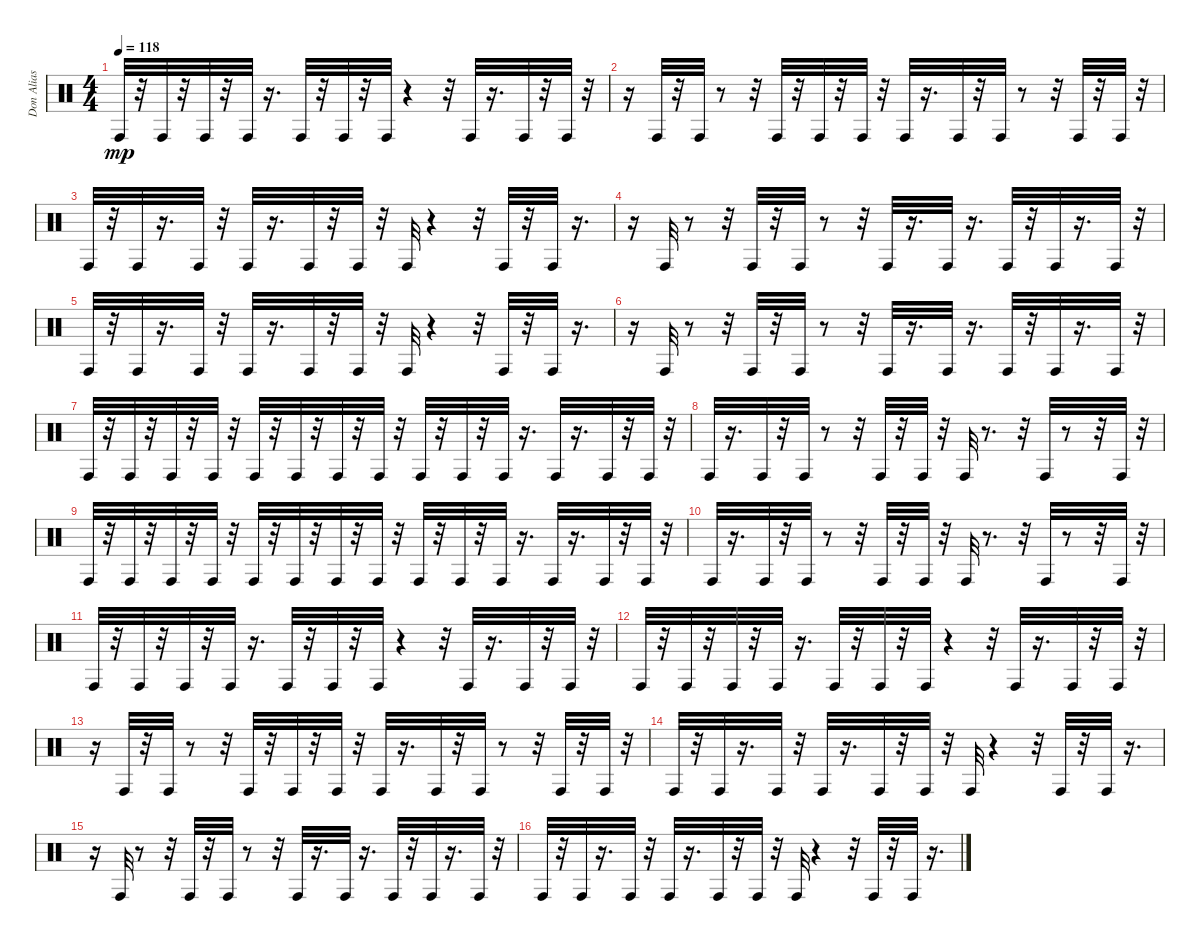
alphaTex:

\track ("Don Alias" "Don Alias") {instrument percussion}
\staff {score}
\articulation defaults
\ts (4 4)
\tempo 118
\clef neutral
\ks c "Conga high (hit)".32{dy mp}
r.32 "Conga high (hit)".32 r.32 "Conga high (hit)".32 r.32 "Conga high (hit)".32 r.16{d} "Conga high (hit)".32 r.32 "Conga high (hit)".32 r.32 "Conga high (hit)".32 r.4 r.32 "Conga high (hit)".32 r.16{d} "Conga high (hit)".32 r.32 "Conga high (hit)".32 r.32 |
r.16 "Conga high (hit)".32 r.32 "Conga high (hit)".32 r.8 r.32 "Conga high (hit)".32 r.32 "Conga high (hit)".32 r.32 "Conga high (hit)".32 r.32 "Conga high (hit)".32 r.16{d} "Conga high (hit)".32 r.32 "Conga high (hit)".32 r.8 r.32 "Conga high (hit)".32 r.32 "Conga high (hit)".32 r.32 |
"Conga high (hit)".32 r.32 "Conga high (hit)".32 r.16{d} "Conga high (hit)".32 r.32 "Conga high (hit)".32 r.16{d} "Conga high (hit)".32 r.32 "Conga high (hit)".32 r.32 "Conga high (hit)".32 r.4 r.32 "Conga high (hit)".32 r.32 "Conga high (hit)".32 r.16{d} |
r.16 "Conga high (hit)".32 r.8 r.32 "Conga high (hit)".32 r.32 "Conga high (hit)".32 r.8 r.32 "Conga high (hit)".32 r.16{d} "Conga high (hit)".32 r.16{d} "Conga high (hit)".32 r.32 "Conga high (hit)".32 r.16{d} "Conga high (hit)".32 r.32 |
"Conga high (hit)".32 r.32 "Conga high (hit)".32 r.16{d} "Conga high (hit)".32 r.32 "Conga high (hit)".32 r.16{d} "Conga high (hit)".32 r.32 "Conga high (hit)".32 r.32 "Conga high (hit)".32 r.4 r.32 "Conga high (hit)".32 r.32 "Conga high (hit)".32 r.16{d} |
r.16 "Conga high (hit)".32 r.8 r.32 "Conga high (hit)".32 r.32 "Conga high (hit)".32 r.8 r.32 "Conga high (hit)".32 r.16{d} "Conga high (hit)".32 r.16{d} "Conga high (hit)".32 r.32 "Conga high (hit)".32 r.16{d} "Conga high (hit)".32 r.32 |
"Conga high (hit)".32 r.32 "Conga high (hit)".32 r.32 "Conga high (hit)".32 r.32 "Conga high (hit)".32 r.32 "Conga high (hit)".32 r.32 "Conga high (hit)".32 r.32 "Conga high (hit)".32 r.32 "Conga high (hit)".32 r.32 "Conga high (hit)".32 r.32 "Conga high (hit)".32 r.32 "Conga high (hit)".32 r.16{d} "Conga high (hit)".32 r.16{d} "Conga high (hit)".32 r.32 "Conga high (hit)".32 r.32 |
"Conga high (hit)".32 r.16{d} "Conga high (hit)".32 r.32 "Conga high (hit)".32 r.8 r.32 "Conga high (hit)".32 r.32 "Conga high (hit)".32 r.32 "Conga high (hit)".32 r.8{d} r.32 "Conga high (hit)".32 r.8 r.32 "Conga high (hit)".32 r.32 |
"Conga high (hit)".32 r.32 "Conga high (hit)".32 r.32 "Conga high (hit)".32 r.32 "Conga high (hit)".32 r.32 "Conga high (hit)".32 r.32 "Conga high (hit)".32 r.32 "Conga high (hit)".32 r.32 "Conga high (hit)".32 r.32 "Conga high (hit)".32 r.32 "Conga high (hit)".32 r.32 "Conga high (hit)".32 r.16{d} "Conga high (hit)".32 r.16{d} "Conga high (hit)".32 r.32 "Conga high (hit)".32 r.32 |
"Conga high (hit)".32 r.16{d} "Conga high (hit)".32 r.32 "Conga high (hit)".32 r.8 r.32 "Conga high (hit)".32 r.32 "Conga high (hit)".32 r.32 "Conga high (hit)".32 r.8{d} r.32 "Conga high (hit)".32 r.8 r.32 "Conga high (hit)".32 r.32 |
"Conga high (hit)".32 r.32 "Conga high (hit)".32 r.32 "Conga high (hit)".32 r.32 "Conga high (hit)".32 r.16{d} "Conga high (hit)".32 r.32 "Conga high (hit)".32 r.32 "Conga high (hit)".32 r.4 r.32 "Conga high (hit)".32 r.16{d} "Conga high (hit)".32 r.32 "Conga high (hit)".32 r.32 |
"Conga high (hit)".32 r.32 "Conga high (hit)".32 r.32 "Conga high (hit)".32 r.32 "Conga high (hit)".32 r.16{d} "Conga high (hit)".32 r.32 "Conga high (hit)".32 r.32 "Conga high (hit)".32 r.4 r.32 "Conga high (hit)".32 r.16{d} "Conga high (hit)".32 r.32 "Conga high (hit)".32 r.32 |
r.16 "Conga high (hit)".32 r.32 "Conga high (hit)".32 r.8 r.32 "Conga high (hit)".32 r.32 "Conga high (hit)".32 r.32 "Conga high (hit)".32 r.32 "Conga high (hit)".32 r.16{d} "Conga high (hit)".32 r.32 "Conga high (hit)".32 r.8 r.32 "Conga high (hit)".32 r.32 "Conga high (hit)".32 r.32 |
"Conga high (hit)".32 r.32 "Conga high (hit)".32 r.16{d} "Conga high (hit)".32 r.32 "Conga high (hit)".32 r.16{d} "Conga high (hit)".32 r.32 "Conga high (hit)".32 r.32 "Conga high (hit)".32 r.4 r.32 "Conga high (hit)".32 r.32 "Conga high (hit)".32 r.16{d} |
r.16 "Conga high (hit)".32 r.8 r.32 "Conga high (hit)".32 r.32 "Conga high (hit)".32 r.8 r.32 "Conga high (hit)".32 r.16{d} "Conga high (hit)".32 r.16{d} "Conga high (hit)".32 r.32 "Conga high (hit)".32 r.16{d} "Conga high (hit)".32 r.32 |
"Conga high (hit)".32 r.32 "Conga high (hit)".32 r.16{d} "Conga high (hit)".32 r.32 "Conga high (hit)".32 r.16{d} "Conga high (hit)".32 r.32 "Conga high (hit)".32 r.32 "Conga high (hit)".32 r.4 r.32 "Conga high (hit)".32 r.32 "Conga high (hit)".32 r.16{d}
